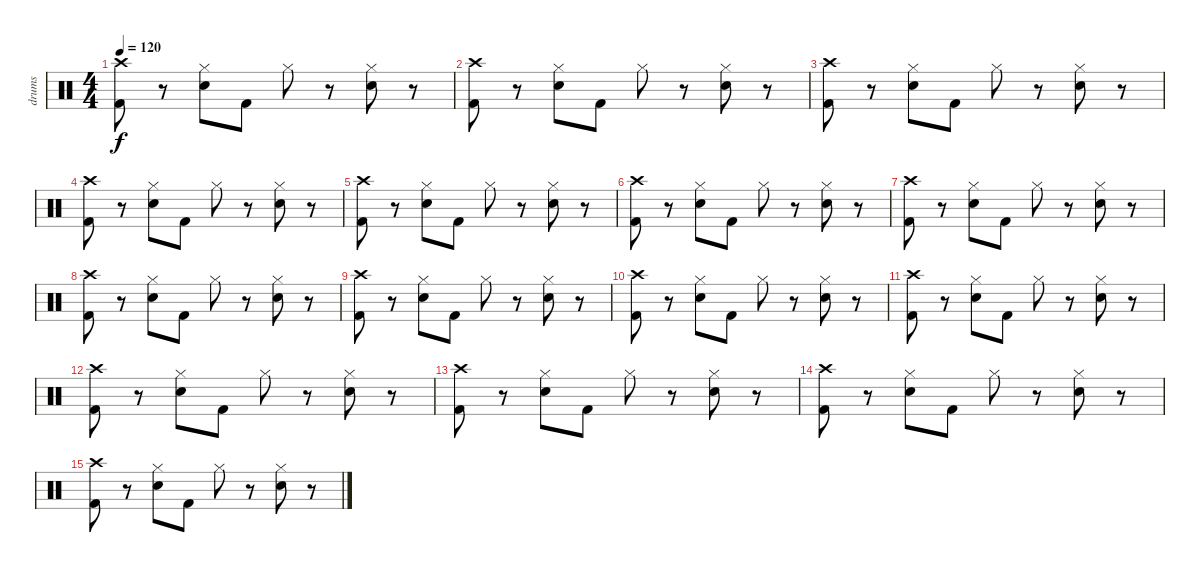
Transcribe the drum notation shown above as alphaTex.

\track ("drums" "drums") {instrument percussion}
\staff {score}
\articulation defaults
\ts (4 4)
\tempo 120
\clef neutral
\ks c
("Crash high (hit)" "Kick (hit) 2").8{dy f} r.8 ("Hi-Hat (closed)" "Snare (hit) 2").8 "Kick (hit) 2".8 "Hi-Hat (closed)".8 r.8 ("Hi-Hat (closed)" "Snare (hit) 2").8 r.8 |
("Crash high (hit)" "Kick (hit) 2").8 r.8 ("Hi-Hat (closed)" "Snare (hit) 2").8 "Kick (hit) 2".8 "Hi-Hat (closed)".8 r.8 ("Hi-Hat (closed)" "Snare (hit) 2").8 r.8 |
("Crash high (hit)" "Kick (hit) 2").8 r.8 ("Hi-Hat (closed)" "Snare (hit) 2").8 "Kick (hit) 2".8 "Hi-Hat (closed)".8 r.8 ("Hi-Hat (closed)" "Snare (hit) 2").8 r.8 |
("Crash high (hit)" "Kick (hit) 2").8 r.8 ("Hi-Hat (closed)" "Snare (hit) 2").8 "Kick (hit) 2".8 "Hi-Hat (closed)".8 r.8 ("Hi-Hat (closed)" "Snare (hit) 2").8 r.8 |
("Crash high (hit)" "Kick (hit) 2").8 r.8 ("Hi-Hat (closed)" "Snare (hit) 2").8 "Kick (hit) 2".8 "Hi-Hat (closed)".8 r.8 ("Hi-Hat (closed)" "Snare (hit) 2").8 r.8 |
("Crash high (hit)" "Kick (hit) 2").8 r.8 ("Hi-Hat (closed)" "Snare (hit) 2").8 "Kick (hit) 2".8 "Hi-Hat (closed)".8 r.8 ("Hi-Hat (closed)" "Snare (hit) 2").8 r.8 |
("Crash high (hit)" "Kick (hit) 2").8 r.8 ("Hi-Hat (closed)" "Snare (hit) 2").8 "Kick (hit) 2".8 "Hi-Hat (closed)".8 r.8 ("Hi-Hat (closed)" "Snare (hit) 2").8 r.8 |
("Crash high (hit)" "Kick (hit) 2").8 r.8 ("Hi-Hat (closed)" "Snare (hit) 2").8 "Kick (hit) 2".8 "Hi-Hat (closed)".8 r.8 ("Hi-Hat (closed)" "Snare (hit) 2").8 r.8 |
("Crash high (hit)" "Kick (hit) 2").8 r.8 ("Hi-Hat (closed)" "Snare (hit) 2").8 "Kick (hit) 2".8 "Hi-Hat (closed)".8 r.8 ("Hi-Hat (closed)" "Snare (hit) 2").8 r.8 |
("Crash high (hit)" "Kick (hit) 2").8 r.8 ("Hi-Hat (closed)" "Snare (hit) 2").8 "Kick (hit) 2".8 "Hi-Hat (closed)".8 r.8 ("Hi-Hat (closed)" "Snare (hit) 2").8 r.8 |
("Crash high (hit)" "Kick (hit) 2").8 r.8 ("Hi-Hat (closed)" "Snare (hit) 2").8 "Kick (hit) 2".8 "Hi-Hat (closed)".8 r.8 ("Hi-Hat (closed)" "Snare (hit) 2").8 r.8 |
("Crash high (hit)" "Kick (hit) 2").8 r.8 ("Hi-Hat (closed)" "Snare (hit) 2").8 "Kick (hit) 2".8 "Hi-Hat (closed)".8 r.8 ("Hi-Hat (closed)" "Snare (hit) 2").8 r.8 |
("Crash high (hit)" "Kick (hit) 2").8 r.8 ("Hi-Hat (closed)" "Snare (hit) 2").8 "Kick (hit) 2".8 "Hi-Hat (closed)".8 r.8 ("Hi-Hat (closed)" "Snare (hit) 2").8 r.8 |
("Crash high (hit)" "Kick (hit) 2").8 r.8 ("Hi-Hat (closed)" "Snare (hit) 2").8 "Kick (hit) 2".8 "Hi-Hat (closed)".8 r.8 ("Hi-Hat (closed)" "Snare (hit) 2").8 r.8 |
("Crash high (hit)" "Kick (hit) 2").8 r.8 ("Hi-Hat (closed)" "Snare (hit) 2").8 "Kick (hit) 2".8 "Hi-Hat (closed)".8 r.8 ("Hi-Hat (closed)" "Snare (hit) 2").8 r.8
